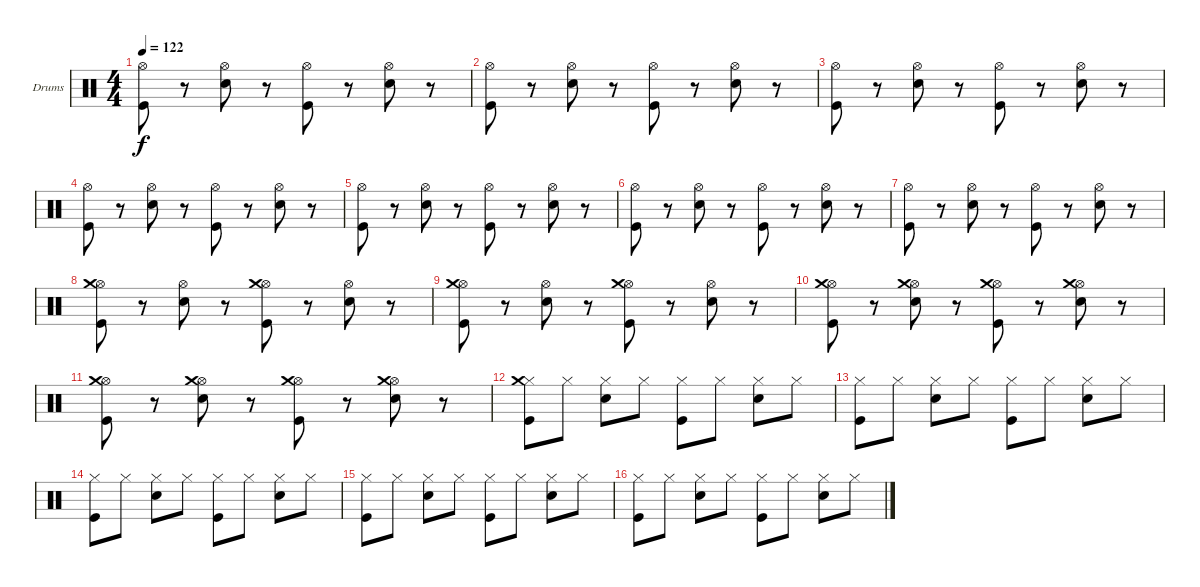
\bracketExtendMode groupsimilarinstruments
\firstSystemTrackNameOrientation horizontal
\otherSystemsTrackNameOrientation horizontal
\track ("Drumkit" "Drums") {instrument percussion}
\staff {score}
\articulation defaults
\ts (4 4)
\tempo 122
\clef neutral
\ks c
("Kick (hit)" "Hi-Hat (open)").8{dy f} r.8 ("Snare (hit) 2" "Hi-Hat (open)").8 r.8 ("Kick (hit)" "Hi-Hat (open)").8 r.8 ("Snare (hit) 2" "Hi-Hat (open)").8 r.8 |
("Kick (hit)" "Hi-Hat (open)").8 r.8 ("Snare (hit) 2" "Hi-Hat (open)").8 r.8 ("Kick (hit)" "Hi-Hat (open)").8 r.8 ("Snare (hit) 2" "Hi-Hat (open)").8 r.8 |
("Kick (hit)" "Hi-Hat (open)").8 r.8 ("Snare (hit) 2" "Hi-Hat (open)").8 r.8 ("Kick (hit)" "Hi-Hat (open)").8 r.8 ("Snare (hit) 2" "Hi-Hat (open)").8 r.8 |
("Kick (hit)" "Hi-Hat (open)").8 r.8 ("Snare (hit) 2" "Hi-Hat (open)").8 r.8 ("Kick (hit)" "Hi-Hat (open)").8 r.8 ("Snare (hit) 2" "Hi-Hat (open)").8 r.8 |
("Kick (hit)" "Hi-Hat (open)").8 r.8 ("Snare (hit) 2" "Hi-Hat (open)").8 r.8 ("Kick (hit)" "Hi-Hat (open)").8 r.8 ("Snare (hit) 2" "Hi-Hat (open)").8 r.8 |
("Kick (hit)" "Hi-Hat (open)").8 r.8 ("Snare (hit) 2" "Hi-Hat (open)").8 r.8 ("Kick (hit)" "Hi-Hat (open)").8 r.8 ("Snare (hit) 2" "Hi-Hat (open)").8 r.8 |
("Kick (hit)" "Hi-Hat (open)").8 r.8 ("Snare (hit) 2" "Hi-Hat (open)").8 r.8 ("Kick (hit)" "Hi-Hat (open)").8 r.8 ("Snare (hit) 2" "Hi-Hat (open)").8 r.8 |
("Kick (hit)" "Hi-Hat (open)" "Crash medium (hit)").8 r.8 ("Snare (hit) 2" "Hi-Hat (open)").8 r.8 ("Kick (hit)" "Hi-Hat (open)" "Crash medium (hit)").8 r.8 ("Snare (hit) 2" "Hi-Hat (open)").8 r.8 |
("Kick (hit)" "Hi-Hat (open)" "Crash medium (hit)").8 r.8 ("Snare (hit) 2" "Hi-Hat (open)").8 r.8 ("Kick (hit)" "Hi-Hat (open)" "Crash medium (hit)").8 r.8 ("Snare (hit) 2" "Hi-Hat (open)").8 r.8 |
("Kick (hit)" "Hi-Hat (open)" "Crash medium (hit)").8 r.8 ("Snare (hit) 2" "Hi-Hat (open)" "Crash medium (hit)").8 r.8 ("Kick (hit)" "Hi-Hat (open)" "Crash medium (hit)").8 r.8 ("Snare (hit) 2" "Hi-Hat (open)" "Crash medium (hit)").8 r.8 |
("Kick (hit)" "Hi-Hat (open)" "Crash medium (hit)").8 r.8 ("Snare (hit) 2" "Hi-Hat (open)" "Crash medium (hit)").8 r.8 ("Kick (hit)" "Hi-Hat (open)" "Crash medium (hit)").8 r.8 ("Snare (hit) 2" "Hi-Hat (open)" "Crash medium (hit)").8 r.8 |
("Kick (hit)" "Hi-Hat (closed)" "Crash medium (hit)").8 "Hi-Hat (closed)".8 ("Snare (hit) 2" "Hi-Hat (closed)").8 "Hi-Hat (closed)".8 ("Kick (hit)" "Hi-Hat (closed)").8 "Hi-Hat (closed)".8 ("Snare (hit) 2" "Hi-Hat (closed)").8 "Hi-Hat (closed)".8 |
("Kick (hit)" "Hi-Hat (closed)").8 "Hi-Hat (closed)".8 ("Snare (hit) 2" "Hi-Hat (closed)").8 "Hi-Hat (closed)".8 ("Kick (hit)" "Hi-Hat (closed)").8 "Hi-Hat (closed)".8 ("Snare (hit) 2" "Hi-Hat (closed)").8 "Hi-Hat (closed)".8 |
("Kick (hit)" "Hi-Hat (closed)").8 "Hi-Hat (closed)".8 ("Snare (hit) 2" "Hi-Hat (closed)").8 "Hi-Hat (closed)".8 ("Kick (hit)" "Hi-Hat (closed)").8 "Hi-Hat (closed)".8 ("Snare (hit) 2" "Hi-Hat (closed)").8 "Hi-Hat (closed)".8 |
("Kick (hit)" "Hi-Hat (closed)").8 "Hi-Hat (closed)".8 ("Snare (hit) 2" "Hi-Hat (closed)").8 "Hi-Hat (closed)".8 ("Kick (hit)" "Hi-Hat (closed)").8 "Hi-Hat (closed)".8 ("Snare (hit) 2" "Hi-Hat (closed)").8 "Hi-Hat (closed)".8 |
("Kick (hit)" "Hi-Hat (closed)").8 "Hi-Hat (closed)".8 ("Snare (hit) 2" "Hi-Hat (closed)").8 "Hi-Hat (closed)".8 ("Kick (hit)" "Hi-Hat (closed)").8 "Hi-Hat (closed)".8 ("Snare (hit) 2" "Hi-Hat (closed)").8 "Hi-Hat (closed)".8
